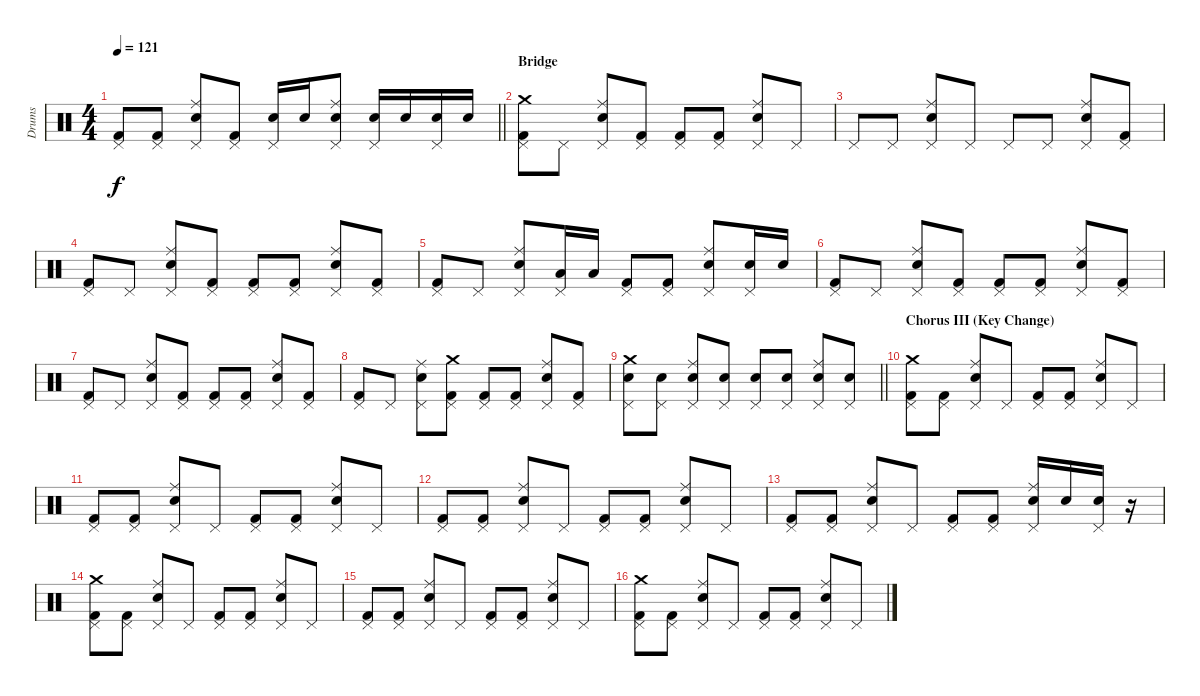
\track ("Drums" "Drums") {instrument percussion}
\staff {score}
\articulation defaults
\ts (4 4)
\tempo 121
\clef neutral
\barLineRight lightlight
\ks c
("Pedal Hi-Hat (hit)" "Kick (hit) 2").8{dy f} ("Pedal Hi-Hat (hit)" "Kick (hit) 2").8 ("Pedal Hi-Hat (hit)" "Ride (middle)" "Snare (hit) 2").8 ("Pedal Hi-Hat (hit)" "Kick (hit) 2").8 ("Pedal Hi-Hat (hit)" "Snare (hit) 2").16 "Snare (hit) 2".16 ("Pedal Hi-Hat (hit)" "Ride (middle)" "Snare (hit) 2").8 ("Pedal Hi-Hat (hit)" "Snare (hit) 2").16 "Snare (hit) 2".16 ("Pedal Hi-Hat (hit)" "Snare (hit) 2").16 "Snare (hit) 2".16 |
\section ("" "Bridge")
("Pedal Hi-Hat (hit)" "Crash medium (hit)" "Kick (hit) 2").8 "Pedal Hi-Hat (hit)".8 ("Pedal Hi-Hat (hit)" "Ride (middle)" "Snare (hit) 2").8 ("Pedal Hi-Hat (hit)" "Kick (hit) 2").8 ("Pedal Hi-Hat (hit)" "Kick (hit) 2").8 ("Pedal Hi-Hat (hit)" "Kick (hit) 2").8 ("Pedal Hi-Hat (hit)" "Ride (middle)" "Snare (hit) 2").8 "Pedal Hi-Hat (hit)".8 |
"Pedal Hi-Hat (hit)".8 "Pedal Hi-Hat (hit)".8 ("Pedal Hi-Hat (hit)" "Ride (middle)" "Snare (hit) 2").8 "Pedal Hi-Hat (hit)".8 "Pedal Hi-Hat (hit)".8 "Pedal Hi-Hat (hit)".8 ("Pedal Hi-Hat (hit)" "Ride (middle)" "Snare (hit) 2").8 ("Pedal Hi-Hat (hit)" "Kick (hit) 2").8 |
("Pedal Hi-Hat (hit)" "Kick (hit) 2").8 "Pedal Hi-Hat (hit)".8 ("Pedal Hi-Hat (hit)" "Ride (middle)" "Snare (hit) 2").8 ("Pedal Hi-Hat (hit)" "Kick (hit) 2").8 ("Pedal Hi-Hat (hit)" "Kick (hit) 2").8 ("Pedal Hi-Hat (hit)" "Kick (hit) 2").8 ("Pedal Hi-Hat (hit)" "Ride (middle)" "Snare (hit) 2").8 ("Pedal Hi-Hat (hit)" "Kick (hit) 2").8 |
("Pedal Hi-Hat (hit)" "Kick (hit) 2").8 "Pedal Hi-Hat (hit)".8 ("Pedal Hi-Hat (hit)" "Ride (middle)" "Snare (hit) 2").8 ("Pedal Hi-Hat (hit)" "Low Tom (hit)").16 "Low Tom (hit)".16 ("Pedal Hi-Hat (hit)" "Kick (hit) 2").8 ("Pedal Hi-Hat (hit)" "Kick (hit) 2").8 ("Pedal Hi-Hat (hit)" "Ride (middle)" "Snare (hit) 2").8 ("Pedal Hi-Hat (hit)" "Snare (hit) 2").16 "Snare (hit) 2".16 |
("Pedal Hi-Hat (hit)" "Kick (hit) 2").8 "Pedal Hi-Hat (hit)".8 ("Pedal Hi-Hat (hit)" "Ride (middle)" "Snare (hit) 2").8 ("Pedal Hi-Hat (hit)" "Kick (hit) 2").8 ("Pedal Hi-Hat (hit)" "Kick (hit) 2").8 ("Pedal Hi-Hat (hit)" "Kick (hit) 2").8 ("Pedal Hi-Hat (hit)" "Ride (middle)" "Snare (hit) 2").8 ("Pedal Hi-Hat (hit)" "Kick (hit) 2").8 |
("Pedal Hi-Hat (hit)" "Kick (hit) 2").8 "Pedal Hi-Hat (hit)".8 ("Pedal Hi-Hat (hit)" "Ride (middle)" "Snare (hit) 2").8 ("Pedal Hi-Hat (hit)" "Kick (hit) 2").8 ("Pedal Hi-Hat (hit)" "Kick (hit) 2").8 ("Pedal Hi-Hat (hit)" "Kick (hit) 2").8 ("Pedal Hi-Hat (hit)" "Ride (middle)" "Snare (hit) 2").8 ("Pedal Hi-Hat (hit)" "Kick (hit) 2").8 |
("Pedal Hi-Hat (hit)" "Kick (hit) 2").8 "Pedal Hi-Hat (hit)".8 ("Pedal Hi-Hat (hit)" "Ride (middle)" "Snare (hit) 2").8 ("Pedal Hi-Hat (hit)" "Crash medium (hit)" "Kick (hit) 2").8 ("Pedal Hi-Hat (hit)" "Kick (hit) 2").8 ("Pedal Hi-Hat (hit)" "Kick (hit) 2").8 ("Pedal Hi-Hat (hit)" "Ride (middle)" "Snare (hit) 2").8 ("Pedal Hi-Hat (hit)" "Kick (hit) 2").8 |
\barLineRight lightlight
("Pedal Hi-Hat (hit)" "Crash medium (hit)" "Snare (hit) 2").8 ("Pedal Hi-Hat (hit)" "Snare (hit) 2").8 ("Pedal Hi-Hat (hit)" "Ride (middle)" "Snare (hit) 2").8 ("Pedal Hi-Hat (hit)" "Snare (hit) 2").8 ("Pedal Hi-Hat (hit)" "Snare (hit) 2").8 ("Pedal Hi-Hat (hit)" "Snare (hit) 2").8 ("Pedal Hi-Hat (hit)" "Ride (middle)" "Snare (hit) 2").8 ("Pedal Hi-Hat (hit)" "Snare (hit) 2").8 |
\section ("" "Chorus III (Key Change)")
("Pedal Hi-Hat (hit)" "Crash medium (hit)" "Kick (hit) 2").8 ("Pedal Hi-Hat (hit)" "Kick (hit) 2").8 ("Pedal Hi-Hat (hit)" "Ride (middle)" "Snare (hit) 2").8 "Pedal Hi-Hat (hit)".8 ("Pedal Hi-Hat (hit)" "Kick (hit) 2").8 ("Pedal Hi-Hat (hit)" "Kick (hit) 2").8 ("Pedal Hi-Hat (hit)" "Ride (middle)" "Snare (hit) 2").8 "Pedal Hi-Hat (hit)".8 |
("Pedal Hi-Hat (hit)" "Kick (hit) 2").8 ("Pedal Hi-Hat (hit)" "Kick (hit) 2").8 ("Pedal Hi-Hat (hit)" "Ride (middle)" "Snare (hit) 2").8 "Pedal Hi-Hat (hit)".8 ("Pedal Hi-Hat (hit)" "Kick (hit) 2").8 ("Pedal Hi-Hat (hit)" "Kick (hit) 2").8 ("Pedal Hi-Hat (hit)" "Ride (middle)" "Snare (hit) 2").8 "Pedal Hi-Hat (hit)".8 |
("Pedal Hi-Hat (hit)" "Kick (hit) 2").8 ("Pedal Hi-Hat (hit)" "Kick (hit) 2").8 ("Pedal Hi-Hat (hit)" "Ride (middle)" "Snare (hit) 2").8 "Pedal Hi-Hat (hit)".8 ("Pedal Hi-Hat (hit)" "Kick (hit) 2").8 ("Pedal Hi-Hat (hit)" "Kick (hit) 2").8 ("Pedal Hi-Hat (hit)" "Ride (middle)" "Snare (hit) 2").8 "Pedal Hi-Hat (hit)".8 |
("Pedal Hi-Hat (hit)" "Kick (hit) 2").8 ("Pedal Hi-Hat (hit)" "Kick (hit) 2").8 ("Pedal Hi-Hat (hit)" "Ride (middle)" "Snare (hit) 2").8 "Pedal Hi-Hat (hit)".8 ("Pedal Hi-Hat (hit)" "Kick (hit) 2").8 ("Pedal Hi-Hat (hit)" "Kick (hit) 2").8 ("Pedal Hi-Hat (hit)" "Ride (middle)" "Snare (hit) 2").16 "Snare (hit) 2".16 ("Pedal Hi-Hat (hit)" "Snare (hit) 2").16 r.16 |
("Pedal Hi-Hat (hit)" "Crash medium (hit)" "Kick (hit) 2").8 ("Pedal Hi-Hat (hit)" "Kick (hit) 2").8 ("Pedal Hi-Hat (hit)" "Ride (middle)" "Snare (hit) 2").8 "Pedal Hi-Hat (hit)".8 ("Pedal Hi-Hat (hit)" "Kick (hit) 2").8 ("Pedal Hi-Hat (hit)" "Kick (hit) 2").8 ("Pedal Hi-Hat (hit)" "Ride (middle)" "Snare (hit) 2").8 "Pedal Hi-Hat (hit)".8 |
("Pedal Hi-Hat (hit)" "Kick (hit) 2").8 ("Pedal Hi-Hat (hit)" "Kick (hit) 2").8 ("Pedal Hi-Hat (hit)" "Ride (middle)" "Snare (hit) 2").8 "Pedal Hi-Hat (hit)".8 ("Pedal Hi-Hat (hit)" "Kick (hit) 2").8 ("Pedal Hi-Hat (hit)" "Kick (hit) 2").8 ("Pedal Hi-Hat (hit)" "Ride (middle)" "Snare (hit) 2").8 "Pedal Hi-Hat (hit)".8 |
("Pedal Hi-Hat (hit)" "Crash medium (hit)" "Kick (hit) 2").8 ("Pedal Hi-Hat (hit)" "Kick (hit) 2").8 ("Pedal Hi-Hat (hit)" "Ride (middle)" "Snare (hit) 2").8 "Pedal Hi-Hat (hit)".8 ("Pedal Hi-Hat (hit)" "Kick (hit) 2").8 ("Pedal Hi-Hat (hit)" "Kick (hit) 2").8 ("Pedal Hi-Hat (hit)" "Ride (middle)" "Snare (hit) 2").8 "Pedal Hi-Hat (hit)".8
